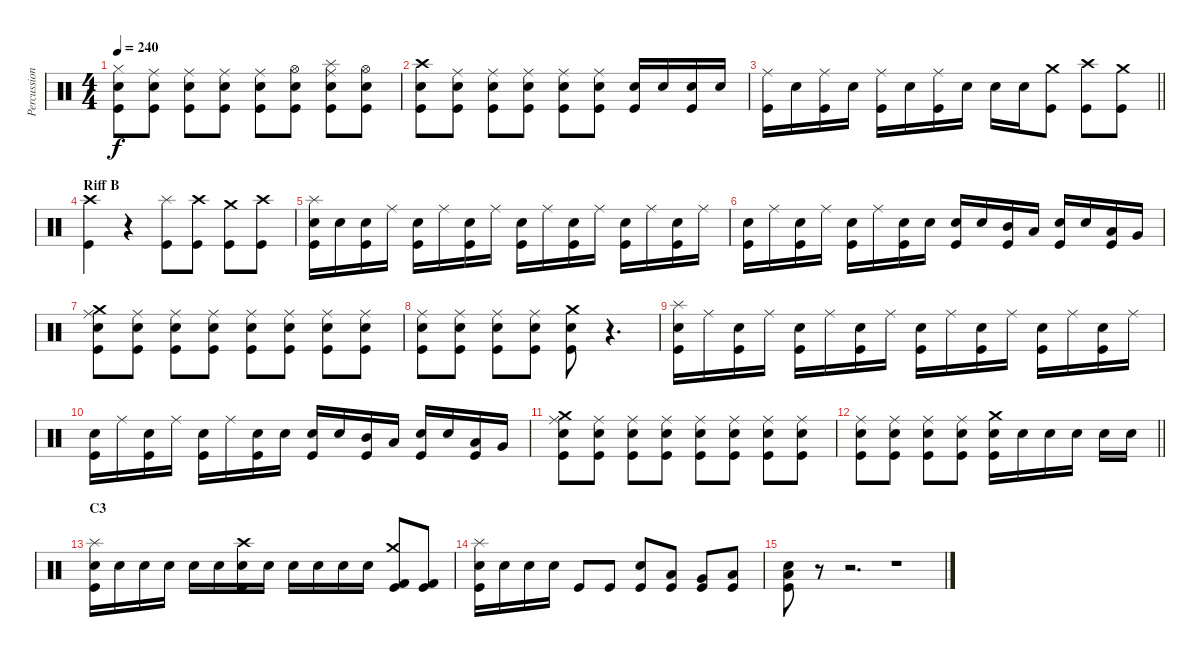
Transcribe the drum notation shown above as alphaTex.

\track ("Percussions" "Percussion") {instrument percussion}
\staff {score}
\articulation defaults
\ts (4 4)
\tempo 240
\clef neutral
\ks c
("Electric Snare (hit)" "Hi-Hat (closed)" "Kick (hit)").8{dy f} ("Electric Snare (hit)" "Ride (middle)" "Kick (hit)").8 ("Electric Snare (hit)" "Ride (middle)" "Kick (hit)").8 ("Electric Snare (hit)" "Ride (middle)" "Kick (hit)").8 ("Electric Snare (hit)" "Ride (middle)" "Kick (hit)").8 ("Hi-Hat (open)" "Electric Snare (hit)" "Kick (hit)").8 ("Splash (hit)" "Electric Snare (hit)" "Ride (middle)" "Kick (hit)").8 ("Hi-Hat (open)" "Electric Snare (hit)" "Kick (hit)").8 |
("Crash high (hit)" "Electric Snare (hit)" "Kick (hit)").8 ("Electric Snare (hit)" "Ride (middle)" "Kick (hit)").8 ("Electric Snare (hit)" "Ride (middle)" "Kick (hit)").8 ("Electric Snare (hit)" "Ride (middle)" "Kick (hit)").8 ("Electric Snare (hit)" "Ride (middle)" "Kick (hit)").8 ("Electric Snare (hit)" "Ride (middle)" "Kick (hit)").8 ("Electric Snare (hit)" "Kick (hit)").16 "Electric Snare (hit)".16 ("Electric Snare (hit)" "Kick (hit)").16 "Electric Snare (hit)".16 |
\barLineRight lightlight
("Ride (middle)" "Kick (hit)").16 "Electric Snare (hit)".16 ("Ride (middle)" "Kick (hit)").16 "Electric Snare (hit)".16 ("Ride (middle)" "Kick (hit)").16 "Electric Snare (hit)".16 ("Ride (middle)" "Kick (hit)").16 "Electric Snare (hit)".16 "Electric Snare (hit)".16 "Electric Snare (hit)".16 ("Crash medium (hit)" "Kick (hit)").8 ("Crash high (hit)" "Kick (hit)").8 ("Crash medium (hit)" "Kick (hit)").8 |
\section ("" "Riff B")
("Crash high (hit)" "Kick (hit)").4 r.4{volume 1} ("Splash (hit)" "Kick (hit)").8{volume 13} ("Crash high (hit)" "Kick (hit)").8 ("Crash medium (hit)" "Kick (hit)").8 ("Crash high (hit)" "Kick (hit)").8 |
("Splash (hit)" "Electric Snare (hit)" "Kick (hit)").16 "Electric Snare (hit)".16 ("Electric Snare (hit)" "Kick (hit)").16 "Ride (middle)".16 ("Electric Snare (hit)" "Kick (hit)").16 "Ride (middle)".16 ("Electric Snare (hit)" "Kick (hit)").16 "Ride (middle)".16 ("Electric Snare (hit)" "Kick (hit)").16 "Ride (middle)".16 ("Electric Snare (hit)" "Kick (hit)").16 "Ride (middle)".16 ("Electric Snare (hit)" "Kick (hit)").16 "Ride (middle)".16 ("Electric Snare (hit)" "Kick (hit)").16 "Ride (middle)".16 |
("Electric Snare (hit)" "Kick (hit)").16 "Ride (middle)".16 ("Electric Snare (hit)" "Kick (hit)").16 "Ride (middle)".16 ("Electric Snare (hit)" "Kick (hit)").16 "Ride (middle)".16 ("Electric Snare (hit)" "Kick (hit)").16 "Electric Snare (hit)".16 ("Electric Snare (hit)" "Kick (hit)").16 "Electric Snare (hit)".16 ("Mid Tom (hit)" "Kick (hit)").16 "Low Tom (hit)".16 ("Electric Snare (hit)" "Kick (hit)").16 "Electric Snare (hit)".16 ("Low Tom (hit)" "Kick (hit)").16 "Very Low Tom (hit)".16 |
("Crash medium (hit)" "Electric Snare (hit)" "Ride (middle)" "Kick (hit)").8 ("Electric Snare (hit)" "Ride (middle)" "Kick (hit)").8 ("Electric Snare (hit)" "Ride (middle)" "Kick (hit)").8 ("Electric Snare (hit)" "Ride (middle)" "Kick (hit)").8 ("Electric Snare (hit)" "Ride (middle)" "Kick (hit)").8 ("Electric Snare (hit)" "Ride (middle)" "Kick (hit)").8 ("Electric Snare (hit)" "Ride (middle)" "Kick (hit)").8 ("Electric Snare (hit)" "Ride (middle)" "Kick (hit)").8 |
("Electric Snare (hit)" "Ride (middle)" "Kick (hit)").8 ("Electric Snare (hit)" "Ride (middle)" "Kick (hit)").8 ("Electric Snare (hit)" "Ride (middle)" "Kick (hit)").8 ("Electric Snare (hit)" "Ride (middle)" "Kick (hit)").8 ("Crash medium (hit)" "Electric Snare (hit)" "Kick (hit)").8 r.4{d volume 0} |
("Splash (hit)" "Electric Snare (hit)" "Kick (hit)").16{volume 13} "Ride (middle)".16 ("Electric Snare (hit)" "Kick (hit)").16 "Ride (middle)".16 ("Electric Snare (hit)" "Kick (hit)").16 "Ride (middle)".16 ("Electric Snare (hit)" "Kick (hit)").16 "Ride (middle)".16 ("Electric Snare (hit)" "Kick (hit)").16 "Ride (middle)".16 ("Electric Snare (hit)" "Kick (hit)").16 "Ride (middle)".16 ("Electric Snare (hit)" "Kick (hit)").16 "Ride (middle)".16 ("Electric Snare (hit)" "Kick (hit)").16 "Ride (middle)".16 |
("Electric Snare (hit)" "Kick (hit)").16 "Ride (middle)".16 ("Electric Snare (hit)" "Kick (hit)").16 "Ride (middle)".16 ("Electric Snare (hit)" "Kick (hit)").16 "Ride (middle)".16 ("Electric Snare (hit)" "Kick (hit)").16 "Electric Snare (hit)".16 ("Electric Snare (hit)" "Kick (hit)").16 "Electric Snare (hit)".16 ("Mid Tom (hit)" "Kick (hit)").16 "Low Tom (hit)".16 ("Electric Snare (hit)" "Kick (hit)").16 "Electric Snare (hit)".16 ("Low Tom (hit)" "Kick (hit)").16 "Very Low Tom (hit)".16 |
("Crash medium (hit)" "Electric Snare (hit)" "Ride (middle)" "Kick (hit)").8 ("Electric Snare (hit)" "Ride (middle)" "Kick (hit)").8 ("Electric Snare (hit)" "Ride (middle)" "Kick (hit)").8 ("Electric Snare (hit)" "Ride (middle)" "Kick (hit)").8 ("Electric Snare (hit)" "Ride (middle)" "Kick (hit)").8 ("Electric Snare (hit)" "Ride (middle)" "Kick (hit)").8 ("Electric Snare (hit)" "Ride (middle)" "Kick (hit)").8 ("Electric Snare (hit)" "Ride (middle)" "Kick (hit)").8 |
\barLineRight lightlight
("Electric Snare (hit)" "Ride (middle)" "Kick (hit)").8 ("Electric Snare (hit)" "Ride (middle)" "Kick (hit)").8 ("Electric Snare (hit)" "Ride (middle)" "Kick (hit)").8 ("Electric Snare (hit)" "Ride (middle)" "Kick (hit)").8 ("Crash medium (hit)" "Electric Snare (hit)" "Kick (hit)").16 "Electric Snare (hit)".16 "Electric Snare (hit)".16 "Electric Snare (hit)".16 "Electric Snare (hit)".16 "Electric Snare (hit)".16 |
\section ("" "C3")
("Splash (hit)" "Electric Snare (hit)" "Kick (hit)").16 "Electric Snare (hit)".16 "Electric Snare (hit)".16 "Electric Snare (hit)".16 "Electric Snare (hit)".16 "Electric Snare (hit)".16 ("Crash high (hit)" "Electric Snare (hit)" "Kick (hit)").16 "Electric Snare (hit)".16 "Electric Snare (hit)".16 "Electric Snare (hit)".16 "Electric Snare (hit)".16 "Electric Snare (hit)".16 ("Crash medium (hit)" "Kick (hit) 2" "Kick (hit)").8 ("Kick (hit) 2" "Kick (hit)").8 |
("Splash (hit)" "Electric Snare (hit)" "Kick (hit)").16 "Electric Snare (hit)".16 "Electric Snare (hit)".16 "Electric Snare (hit)".16 "Kick (hit)".8 "Kick (hit)".8 ("Electric Snare (hit)" "Kick (hit)").8 ("Low Tom (hit)" "Kick (hit)").8 ("Very Low Tom (hit)" "Kick (hit)").8 ("Low Tom (hit)" "Kick (hit)").8 |
("Electric Snare (hit)" "Low Floor Tom (hit)" "Kick (hit)").8 r.8{volume 0} r.2{d} r.1
